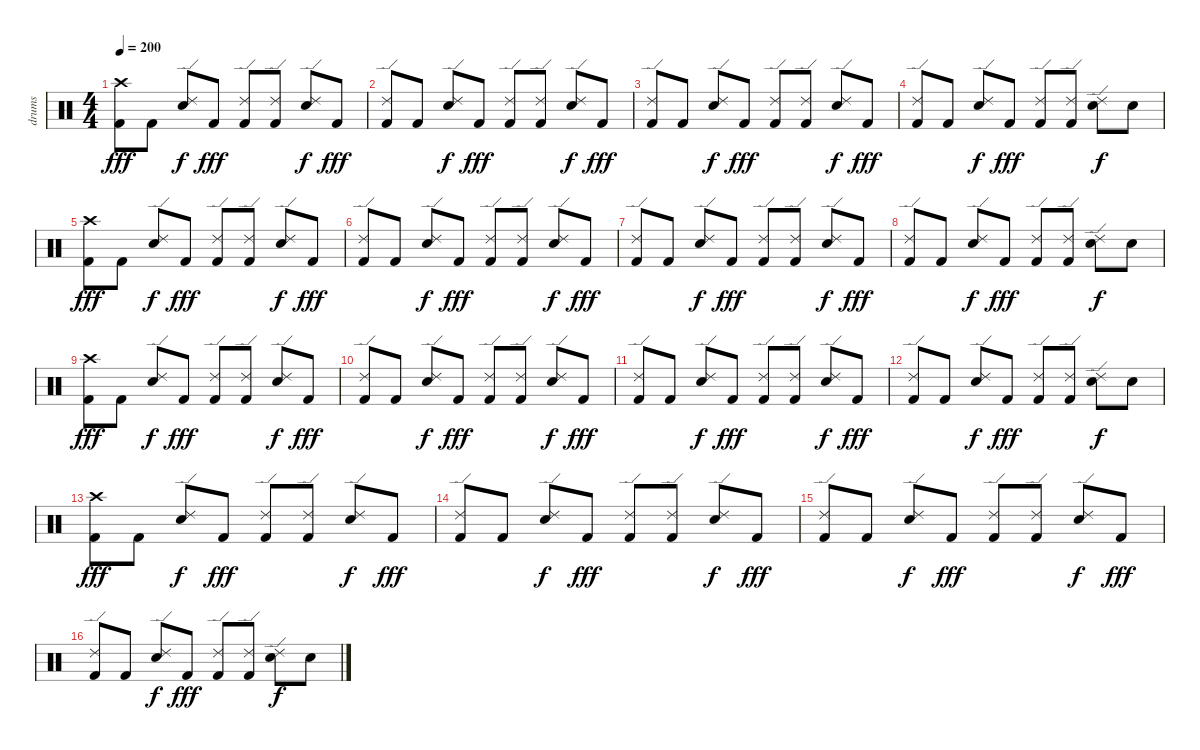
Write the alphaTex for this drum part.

\track ("drums" "drums") {instrument percussion}
\staff {score}
\articulation defaults
\ts (4 4)
\tempo 200
\clef neutral
\ks c
("Crash high (hit)" "Kick (hit) 2").8{dy fff} "Kick (hit) 2".8 ("Ride (edge) 2" "Snare (hit) 2").8{dy f} "Kick (hit) 2".8{dy fff} ("Ride (edge) 2" "Kick (hit) 2").8 ("Ride (edge) 2" "Kick (hit) 2").8 ("Ride (edge) 2" "Snare (hit) 2").8{dy f} "Kick (hit) 2".8{dy fff} |
("Ride (edge) 2" "Kick (hit) 2").8 "Kick (hit) 2".8 ("Ride (edge) 2" "Snare (hit) 2").8{dy f} "Kick (hit) 2".8{dy fff} ("Ride (edge) 2" "Kick (hit) 2").8 ("Ride (edge) 2" "Kick (hit) 2").8 ("Ride (edge) 2" "Snare (hit) 2").8{dy f} "Kick (hit) 2".8{dy fff} |
("Ride (edge) 2" "Kick (hit) 2").8 "Kick (hit) 2".8 ("Ride (edge) 2" "Snare (hit) 2").8{dy f} "Kick (hit) 2".8{dy fff} ("Ride (edge) 2" "Kick (hit) 2").8 ("Ride (edge) 2" "Kick (hit) 2").8 ("Ride (edge) 2" "Snare (hit) 2").8{dy f} "Kick (hit) 2".8{dy fff} |
("Ride (edge) 2" "Kick (hit) 2").8 "Kick (hit) 2".8 ("Ride (edge) 2" "Snare (hit) 2").8{dy f} "Kick (hit) 2".8{dy fff} ("Ride (edge) 2" "Kick (hit) 2").8 ("Ride (edge) 2" "Kick (hit) 2").8 ("Ride (edge) 2" "Snare (hit) 2").8{dy f} "Snare (hit) 2".8 |
("Crash high (hit)" "Kick (hit) 2").8{dy fff} "Kick (hit) 2".8 ("Ride (edge) 2" "Snare (hit) 2").8{dy f} "Kick (hit) 2".8{dy fff} ("Ride (edge) 2" "Kick (hit) 2").8 ("Ride (edge) 2" "Kick (hit) 2").8 ("Ride (edge) 2" "Snare (hit) 2").8{dy f} "Kick (hit) 2".8{dy fff} |
("Ride (edge) 2" "Kick (hit) 2").8 "Kick (hit) 2".8 ("Ride (edge) 2" "Snare (hit) 2").8{dy f} "Kick (hit) 2".8{dy fff} ("Ride (edge) 2" "Kick (hit) 2").8 ("Ride (edge) 2" "Kick (hit) 2").8 ("Ride (edge) 2" "Snare (hit) 2").8{dy f} "Kick (hit) 2".8{dy fff} |
("Ride (edge) 2" "Kick (hit) 2").8 "Kick (hit) 2".8 ("Ride (edge) 2" "Snare (hit) 2").8{dy f} "Kick (hit) 2".8{dy fff} ("Ride (edge) 2" "Kick (hit) 2").8 ("Ride (edge) 2" "Kick (hit) 2").8 ("Ride (edge) 2" "Snare (hit) 2").8{dy f} "Kick (hit) 2".8{dy fff} |
("Ride (edge) 2" "Kick (hit) 2").8 "Kick (hit) 2".8 ("Ride (edge) 2" "Snare (hit) 2").8{dy f} "Kick (hit) 2".8{dy fff} ("Ride (edge) 2" "Kick (hit) 2").8 ("Ride (edge) 2" "Kick (hit) 2").8 ("Ride (edge) 2" "Snare (hit) 2").8{dy f} "Snare (hit) 2".8 |
("Crash high (hit)" "Kick (hit) 2").8{dy fff} "Kick (hit) 2".8 ("Ride (edge) 2" "Snare (hit) 2").8{dy f} "Kick (hit) 2".8{dy fff} ("Ride (edge) 2" "Kick (hit) 2").8 ("Ride (edge) 2" "Kick (hit) 2").8 ("Ride (edge) 2" "Snare (hit) 2").8{dy f} "Kick (hit) 2".8{dy fff} |
("Ride (edge) 2" "Kick (hit) 2").8 "Kick (hit) 2".8 ("Ride (edge) 2" "Snare (hit) 2").8{dy f} "Kick (hit) 2".8{dy fff} ("Ride (edge) 2" "Kick (hit) 2").8 ("Ride (edge) 2" "Kick (hit) 2").8 ("Ride (edge) 2" "Snare (hit) 2").8{dy f} "Kick (hit) 2".8{dy fff} |
("Ride (edge) 2" "Kick (hit) 2").8 "Kick (hit) 2".8 ("Ride (edge) 2" "Snare (hit) 2").8{dy f} "Kick (hit) 2".8{dy fff} ("Ride (edge) 2" "Kick (hit) 2").8 ("Ride (edge) 2" "Kick (hit) 2").8 ("Ride (edge) 2" "Snare (hit) 2").8{dy f} "Kick (hit) 2".8{dy fff} |
("Ride (edge) 2" "Kick (hit) 2").8 "Kick (hit) 2".8 ("Ride (edge) 2" "Snare (hit) 2").8{dy f} "Kick (hit) 2".8{dy fff} ("Ride (edge) 2" "Kick (hit) 2").8 ("Ride (edge) 2" "Kick (hit) 2").8 ("Ride (edge) 2" "Snare (hit) 2").8{dy f} "Snare (hit) 2".8 |
("Crash high (hit)" "Kick (hit) 2").8{dy fff} "Kick (hit) 2".8 ("Ride (edge) 2" "Snare (hit) 2").8{dy f} "Kick (hit) 2".8{dy fff} ("Ride (edge) 2" "Kick (hit) 2").8 ("Ride (edge) 2" "Kick (hit) 2").8 ("Ride (edge) 2" "Snare (hit) 2").8{dy f} "Kick (hit) 2".8{dy fff} |
("Ride (edge) 2" "Kick (hit) 2").8 "Kick (hit) 2".8 ("Ride (edge) 2" "Snare (hit) 2").8{dy f} "Kick (hit) 2".8{dy fff} ("Ride (edge) 2" "Kick (hit) 2").8 ("Ride (edge) 2" "Kick (hit) 2").8 ("Ride (edge) 2" "Snare (hit) 2").8{dy f} "Kick (hit) 2".8{dy fff} |
("Ride (edge) 2" "Kick (hit) 2").8 "Kick (hit) 2".8 ("Ride (edge) 2" "Snare (hit) 2").8{dy f} "Kick (hit) 2".8{dy fff} ("Ride (edge) 2" "Kick (hit) 2").8 ("Ride (edge) 2" "Kick (hit) 2").8 ("Ride (edge) 2" "Snare (hit) 2").8{dy f} "Kick (hit) 2".8{dy fff} |
("Ride (edge) 2" "Kick (hit) 2").8 "Kick (hit) 2".8 ("Ride (edge) 2" "Snare (hit) 2").8{dy f} "Kick (hit) 2".8{dy fff} ("Ride (edge) 2" "Kick (hit) 2").8 ("Ride (edge) 2" "Kick (hit) 2").8 ("Ride (edge) 2" "Snare (hit) 2").8{dy f} "Snare (hit) 2".8
